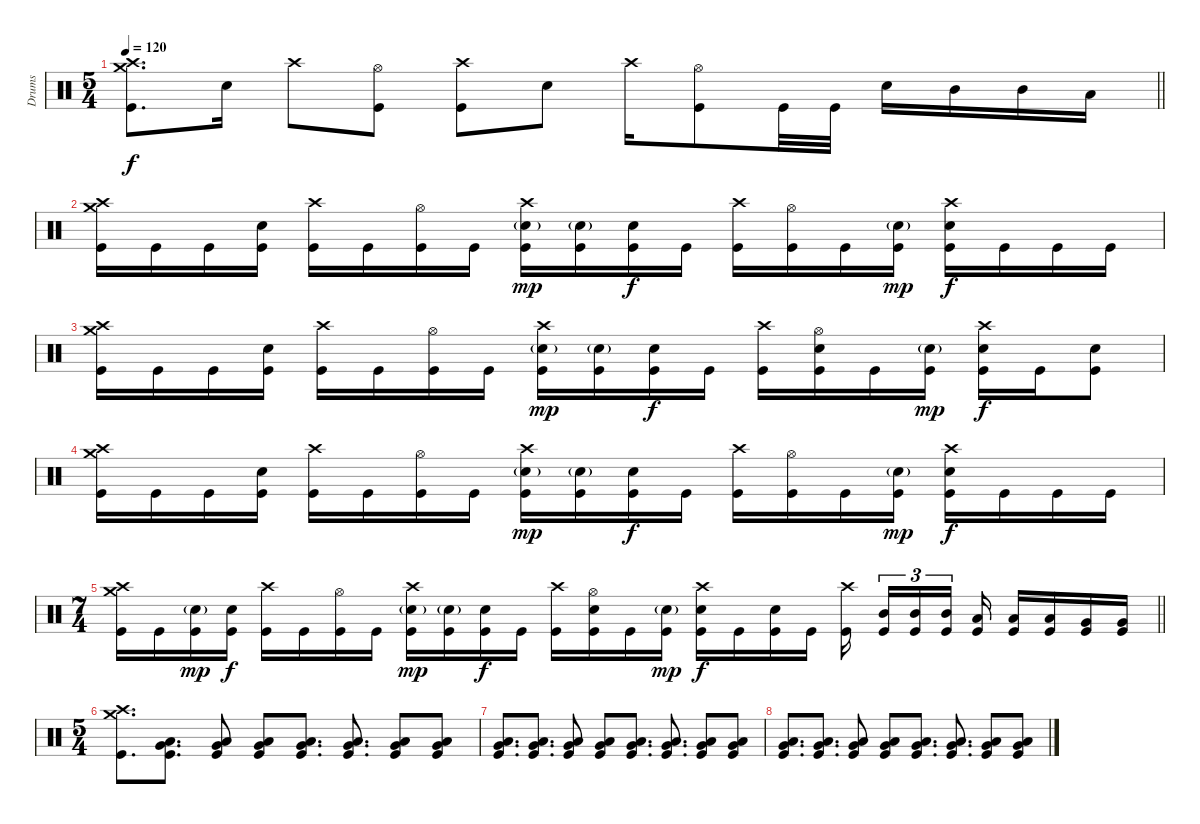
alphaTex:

\track ("Drums" "Drums") {instrument percussion}
\staff
\articulation defaults
\ts (5 4)
\tempo 120
\clef neutral
\barLineRight lightlight
\ks c
("Crash high (hit)" "Crash medium (hit)" "Kick (hit)").8{d dy f} "Electric Snare (hit)".16 "Crash high (hit)".8 ("Hi-Hat (open)" "Kick (hit)").8 ("Crash high (hit)" "Kick (hit)").8 "Electric Snare (hit)".8 "Crash high (hit)".16 ("Hi-Hat (open)" "Kick (hit)").8 "Kick (hit)".32 "Kick (hit)".32 "Electric Snare (hit)".16 "Mid Tom (hit)".16 "Mid Tom (hit)".16 "Low Tom (hit)".16 |
("Crash high (hit)" "Crash medium (hit)" "Kick (hit)").16 "Kick (hit)".16 "Kick (hit)".16 ("Electric Snare (hit)" "Kick (hit)").16 ("Crash high (hit)" "Kick (hit)").16 "Kick (hit)".16 ("Hi-Hat (open)" "Kick (hit)").16 "Kick (hit)".16 ("Crash high (hit)" "Electric Snare (hit)"{g} "Kick (hit)").16{dy mp} ("Electric Snare (hit)"{g} "Kick (hit)").16 ("Electric Snare (hit)" "Kick (hit)").16{dy f} "Kick (hit)".16 ("Crash high (hit)" "Kick (hit)").16 ("Hi-Hat (open)" "Kick (hit)").16 "Kick (hit)".16 ("Electric Snare (hit)"{g} "Kick (hit)").16{dy mp} ("Crash high (hit)" "Electric Snare (hit)" "Kick (hit)").16{dy f} "Kick (hit)".16 "Kick (hit)".16 "Kick (hit)".16 |
("Crash high (hit)" "Crash medium (hit)" "Kick (hit)").16 "Kick (hit)".16 "Kick (hit)".16 ("Electric Snare (hit)" "Kick (hit)").16 ("Crash high (hit)" "Kick (hit)").16 "Kick (hit)".16 ("Hi-Hat (open)" "Kick (hit)").16 "Kick (hit)".16 ("Crash high (hit)" "Electric Snare (hit)"{g} "Kick (hit)").16{dy mp} ("Electric Snare (hit)"{g} "Kick (hit)").16 ("Electric Snare (hit)" "Kick (hit)").16{dy f} "Kick (hit)".16 ("Crash high (hit)" "Kick (hit)").16 ("Hi-Hat (open)" "Electric Snare (hit)" "Kick (hit)").16 "Kick (hit)".16 ("Electric Snare (hit)"{g} "Kick (hit)").16{dy mp} ("Crash high (hit)" "Electric Snare (hit)" "Kick (hit)").16{dy f} "Kick (hit)".16 ("Electric Snare (hit)" "Kick (hit)").8 |
("Crash high (hit)" "Crash medium (hit)" "Kick (hit)").16 "Kick (hit)".16 "Kick (hit)".16 ("Electric Snare (hit)" "Kick (hit)").16 ("Crash high (hit)" "Kick (hit)").16 "Kick (hit)".16 ("Hi-Hat (open)" "Kick (hit)").16 "Kick (hit)".16 ("Crash high (hit)" "Electric Snare (hit)"{g} "Kick (hit)").16{dy mp} ("Electric Snare (hit)"{g} "Kick (hit)").16 ("Electric Snare (hit)" "Kick (hit)").16{dy f} "Kick (hit)".16 ("Crash high (hit)" "Kick (hit)").16 ("Hi-Hat (open)" "Kick (hit)").16 "Kick (hit)".16 ("Electric Snare (hit)"{g} "Kick (hit)").16{dy mp} ("Crash high (hit)" "Electric Snare (hit)" "Kick (hit)").16{dy f} "Kick (hit)".16 "Kick (hit)".16 "Kick (hit)".16 |
\ts (7 4)
\barLineRight lightlight
("Crash high (hit)" "Crash medium (hit)" "Kick (hit)").16 "Kick (hit)".16 ("Electric Snare (hit)"{g} "Kick (hit)").16{dy mp} ("Electric Snare (hit)" "Kick (hit)").16{dy f} ("Crash high (hit)" "Kick (hit)").16 "Kick (hit)".16 ("Hi-Hat (open)" "Kick (hit)").16 "Kick (hit)".16 ("Crash high (hit)" "Electric Snare (hit)"{g} "Kick (hit)").16{dy mp} ("Electric Snare (hit)"{g} "Kick (hit)").16 ("Electric Snare (hit)" "Kick (hit)").16{dy f} "Kick (hit)".16 ("Crash high (hit)" "Kick (hit)").16 ("Hi-Hat (open)" "Electric Snare (hit)" "Kick (hit)").16 "Kick (hit)".16 ("Electric Snare (hit)"{g} "Kick (hit)").16{dy mp} ("Crash high (hit)" "Electric Snare (hit)" "Kick (hit)").16{dy f} "Kick (hit)".16 ("Electric Snare (hit)" "Kick (hit)").16 "Kick (hit)".16 ("Crash high (hit)" "Kick (hit)").16{beam splitsecondary} ("Mid Tom (hit)" "Kick (hit)").16{tu (3 2)} ("Mid Tom (hit)" "Kick (hit)").16{tu (3 2)} ("Mid Tom (hit)" "Kick (hit)").16{tu (3 2) beam splitsecondary} ("Low Tom (hit)" "Kick (hit)").16 ("Low Tom (hit)" "Kick (hit)").16 ("Low Tom (hit)" "Kick (hit)").16 ("Very Low Tom (hit)" "Kick (hit)").16 ("Very Low Tom (hit)" "Kick (hit)").16 |
\ts (5 4)
("Crash high (hit)" "Crash medium (hit)" "Kick (hit)").8{d} ("Very Low Tom (hit)" "Low Floor Tom (hit)" "Kick (hit)").8{d} ("Very Low Tom (hit)" "Low Floor Tom (hit)" "Kick (hit)").8 ("Very Low Tom (hit)" "Low Floor Tom (hit)" "Kick (hit)").8 ("Very Low Tom (hit)" "Low Floor Tom (hit)" "Kick (hit)").8{d} ("Very Low Tom (hit)" "Low Floor Tom (hit)" "Kick (hit)").8{d} ("Very Low Tom (hit)" "Low Floor Tom (hit)" "Kick (hit)").8 ("Very Low Tom (hit)" "Low Floor Tom (hit)" "Kick (hit)").8 |
("Very Low Tom (hit)" "Low Floor Tom (hit)" "Kick (hit)").8{d} ("Very Low Tom (hit)" "Low Floor Tom (hit)" "Kick (hit)").8{d} ("Very Low Tom (hit)" "Low Floor Tom (hit)" "Kick (hit)").8 ("Very Low Tom (hit)" "Low Floor Tom (hit)" "Kick (hit)").8 ("Very Low Tom (hit)" "Low Floor Tom (hit)" "Kick (hit)").8{d} ("Very Low Tom (hit)" "Low Floor Tom (hit)" "Kick (hit)").8{d} ("Very Low Tom (hit)" "Low Floor Tom (hit)" "Kick (hit)").8 ("Very Low Tom (hit)" "Low Floor Tom (hit)" "Kick (hit)").8 |
("Very Low Tom (hit)" "Low Floor Tom (hit)" "Kick (hit)").8{d} ("Very Low Tom (hit)" "Low Floor Tom (hit)" "Kick (hit)").8{d} ("Very Low Tom (hit)" "Low Floor Tom (hit)" "Kick (hit)").8 ("Very Low Tom (hit)" "Low Floor Tom (hit)" "Kick (hit)").8 ("Very Low Tom (hit)" "Low Floor Tom (hit)" "Kick (hit)").8{d} ("Very Low Tom (hit)" "Low Floor Tom (hit)" "Kick (hit)").8{d} ("Very Low Tom (hit)" "Low Floor Tom (hit)" "Kick (hit)").8 ("Very Low Tom (hit)" "Low Floor Tom (hit)" "Kick (hit)").8
